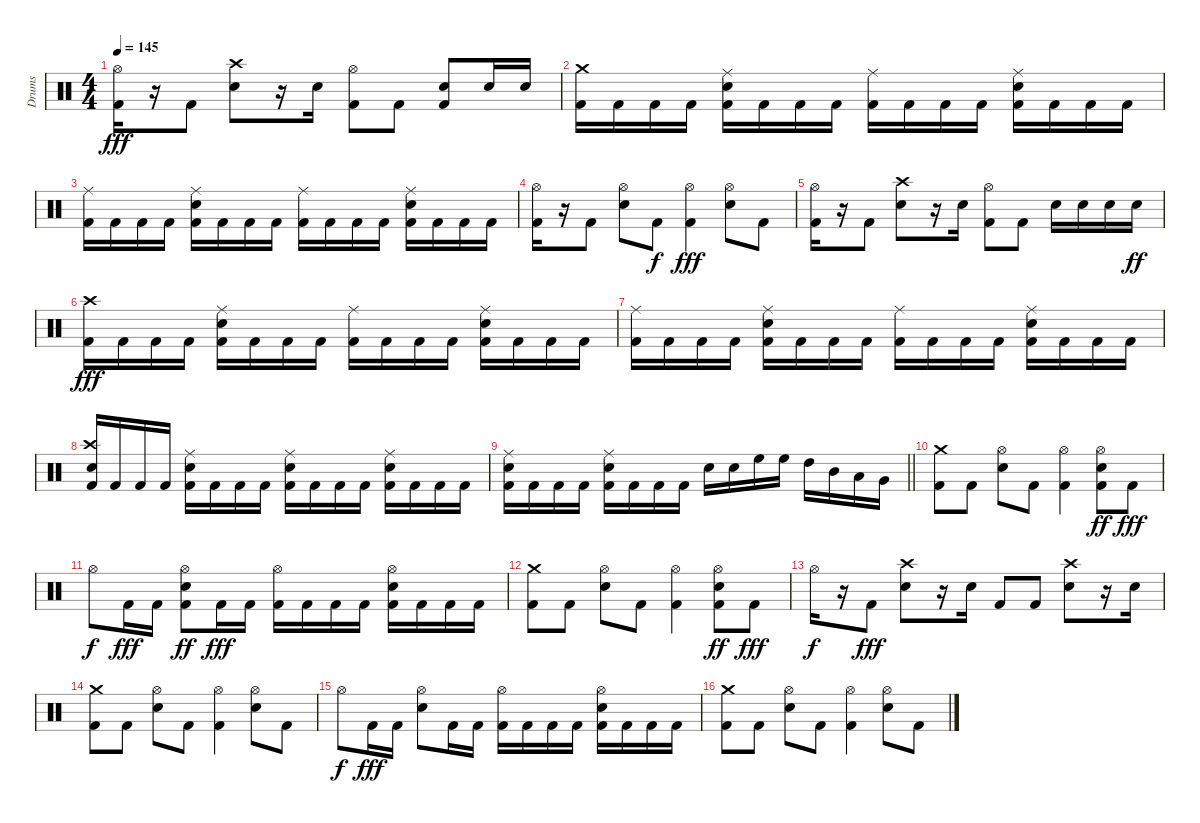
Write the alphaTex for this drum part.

\track ("Drums" "Drums") {instrument percussion}
\staff {score}
\articulation defaults
\ts (4 4)
\tempo 145
\clef neutral
\ks c
("Hi-Hat (open)" "Kick (hit) 2").16{dy fff} r.16 "Kick (hit) 2".8 ("Crash high (hit)" "Snare (hit) 2").8 r.16 "Snare (hit) 2".16 ("Hi-Hat (open)" "Kick (hit) 2").8 "Kick (hit) 2".8 ("Snare (hit) 2" "Kick (hit) 2").8 "Snare (hit) 2".16 "Snare (hit) 2".16 |
("Crash medium (hit)" "Kick (hit) 2").16 "Kick (hit) 2".16 "Kick (hit) 2".16 "Kick (hit) 2".16 ("Ride (middle)" "Snare (hit) 2" "Kick (hit) 2").16 "Kick (hit) 2".16 "Kick (hit) 2".16 "Kick (hit) 2".16 ("Ride (middle)" "Kick (hit) 2").16 "Kick (hit) 2".16 "Kick (hit) 2".16 "Kick (hit) 2".16 ("Ride (middle)" "Snare (hit) 2" "Kick (hit) 2").16 "Kick (hit) 2".16 "Kick (hit) 2".16 "Kick (hit) 2".16 |
("Ride (middle)" "Kick (hit) 2").16 "Kick (hit) 2".16 "Kick (hit) 2".16 "Kick (hit) 2".16 ("Ride (middle)" "Snare (hit) 2" "Kick (hit) 2").16 "Kick (hit) 2".16 "Kick (hit) 2".16 "Kick (hit) 2".16 ("Ride (middle)" "Kick (hit) 2").16 "Kick (hit) 2".16 "Kick (hit) 2".16 "Kick (hit) 2".16 ("Ride (middle)" "Snare (hit) 2" "Kick (hit) 2").16 "Kick (hit) 2".16 "Kick (hit) 2".16 "Kick (hit) 2".16 |
("Hi-Hat (open)" "Kick (hit) 2").16 r.16 "Kick (hit) 2".8 ("Hi-Hat (open)" "Snare (hit) 2").8 "Kick (hit) 2".8{dy f} ("Hi-Hat (open)" "Kick (hit) 2").4{dy fff} ("Hi-Hat (open)" "Snare (hit) 2").8 "Kick (hit) 2".8 |
("Hi-Hat (open)" "Kick (hit) 2").16 r.16 "Kick (hit) 2".8 ("Crash high (hit)" "Snare (hit) 2").8 r.16 "Snare (hit) 2".16 ("Hi-Hat (open)" "Kick (hit) 2").8 "Kick (hit) 2".8 "Snare (hit) 2".16 "Snare (hit) 2".16 "Snare (hit) 2".16 "Snare (hit) 2".16{dy ff} |
("Crash high (hit)" "Kick (hit) 2").16{dy fff} "Kick (hit) 2".16 "Kick (hit) 2".16 "Kick (hit) 2".16 ("Ride (middle)" "Snare (hit) 2" "Kick (hit) 2").16 "Kick (hit) 2".16 "Kick (hit) 2".16 "Kick (hit) 2".16 ("Ride (middle)" "Kick (hit) 2").16 "Kick (hit) 2".16 "Kick (hit) 2".16 "Kick (hit) 2".16 ("Ride (middle)" "Snare (hit) 2" "Kick (hit) 2").16 "Kick (hit) 2".16 "Kick (hit) 2".16 "Kick (hit) 2".16 |
("Ride (middle)" "Kick (hit) 2").16 "Kick (hit) 2".16 "Kick (hit) 2".16 "Kick (hit) 2".16 ("Ride (middle)" "Snare (hit) 2" "Kick (hit) 2").16 "Kick (hit) 2".16 "Kick (hit) 2".16 "Kick (hit) 2".16 ("Ride (middle)" "Kick (hit) 2").16 "Kick (hit) 2".16 "Kick (hit) 2".16 "Kick (hit) 2".16 ("Ride (middle)" "Snare (hit) 2" "Kick (hit) 2").16 "Kick (hit) 2".16 "Kick (hit) 2".16 "Kick (hit) 2".16 |
("Crash high (hit)" "Snare (hit) 2" "Kick (hit) 2").16 "Kick (hit) 2".16 "Kick (hit) 2".16 "Kick (hit) 2".16 ("Ride (middle)" "Snare (hit) 2" "Kick (hit) 2").16 "Kick (hit) 2".16 "Kick (hit) 2".16 "Kick (hit) 2".16 ("Ride (middle)" "Snare (hit) 2" "Kick (hit) 2").16 "Kick (hit) 2".16 "Kick (hit) 2".16 "Kick (hit) 2".16 ("Ride (middle)" "Snare (hit) 2" "Kick (hit) 2").16 "Kick (hit) 2".16 "Kick (hit) 2".16 "Kick (hit) 2".16 |
\barLineRight lightlight
("Ride (middle)" "Snare (hit) 2" "Kick (hit) 2").16 "Kick (hit) 2".16 "Kick (hit) 2".16 "Kick (hit) 2".16 ("Ride (middle)" "Snare (hit) 2" "Kick (hit) 2").16 "Kick (hit) 2".16 "Kick (hit) 2".16 "Kick (hit) 2".16 "Snare (hit) 2".16 "Snare (hit) 2".16 "High Floor Tom (hit)".16 "High Floor Tom (hit)".16 "High Tom (hit)".16 "Mid Tom (hit)".16 "Low Tom (hit)".16 "Very Low Tom (hit)".16 |
("Crash medium (hit)" "Kick (hit) 2").8 "Kick (hit) 2".8 ("Hi-Hat (open)" "Snare (hit) 2").8 "Kick (hit) 2".8 ("Hi-Hat (open)" "Kick (hit) 2").4 ("Hi-Hat (open)" "Snare (hit) 2" "Kick (hit) 2").8{dy ff} "Kick (hit) 2".8{dy fff} |
"Hi-Hat (open)".8{dy f} "Kick (hit) 2".16{dy fff} "Kick (hit) 2".16 ("Hi-Hat (open)" "Snare (hit) 2" "Kick (hit) 2").8{dy ff} "Kick (hit) 2".16{dy fff} "Kick (hit) 2".16 ("Hi-Hat (open)" "Kick (hit) 2").16 "Kick (hit) 2".16 "Kick (hit) 2".16 "Kick (hit) 2".16 ("Hi-Hat (open)" "Snare (hit) 2" "Kick (hit) 2").16 "Kick (hit) 2".16 "Kick (hit) 2".16 "Kick (hit) 2".16 |
("Crash medium (hit)" "Kick (hit) 2").8 "Kick (hit) 2".8 ("Hi-Hat (open)" "Snare (hit) 2").8 "Kick (hit) 2".8 ("Hi-Hat (open)" "Kick (hit) 2").4 ("Hi-Hat (open)" "Snare (hit) 2" "Kick (hit) 2").8{dy ff} "Kick (hit) 2".8{dy fff} |
"Hi-Hat (open)".16{dy f} r.16 "Kick (hit) 2".8{dy fff} ("Crash high (hit)" "Snare (hit) 2").8 r.16 "Snare (hit) 2".16 "Kick (hit) 2".8 "Kick (hit) 2".8 ("Crash high (hit)" "Snare (hit) 2").8 r.16 "Snare (hit) 2".16 |
("Crash medium (hit)" "Kick (hit) 2").8 "Kick (hit) 2".8 ("Hi-Hat (open)" "Snare (hit) 2").8 "Kick (hit) 2".8 ("Hi-Hat (open)" "Kick (hit) 2").4 ("Hi-Hat (open)" "Snare (hit) 2").8 "Kick (hit) 2".8 |
"Hi-Hat (open)".8{dy f} "Kick (hit) 2".16{dy fff} "Kick (hit) 2".16 ("Hi-Hat (open)" "Snare (hit) 2").8 "Kick (hit) 2".16 "Kick (hit) 2".16 ("Hi-Hat (open)" "Kick (hit) 2").16 "Kick (hit) 2".16 "Kick (hit) 2".16 "Kick (hit) 2".16 ("Hi-Hat (open)" "Snare (hit) 2" "Kick (hit) 2").16 "Kick (hit) 2".16 "Kick (hit) 2".16 "Kick (hit) 2".16 |
("Crash medium (hit)" "Kick (hit) 2").8 "Kick (hit) 2".8 ("Hi-Hat (open)" "Snare (hit) 2").8 "Kick (hit) 2".8 ("Hi-Hat (open)" "Kick (hit) 2").4 ("Hi-Hat (open)" "Snare (hit) 2").8 "Kick (hit) 2".8
